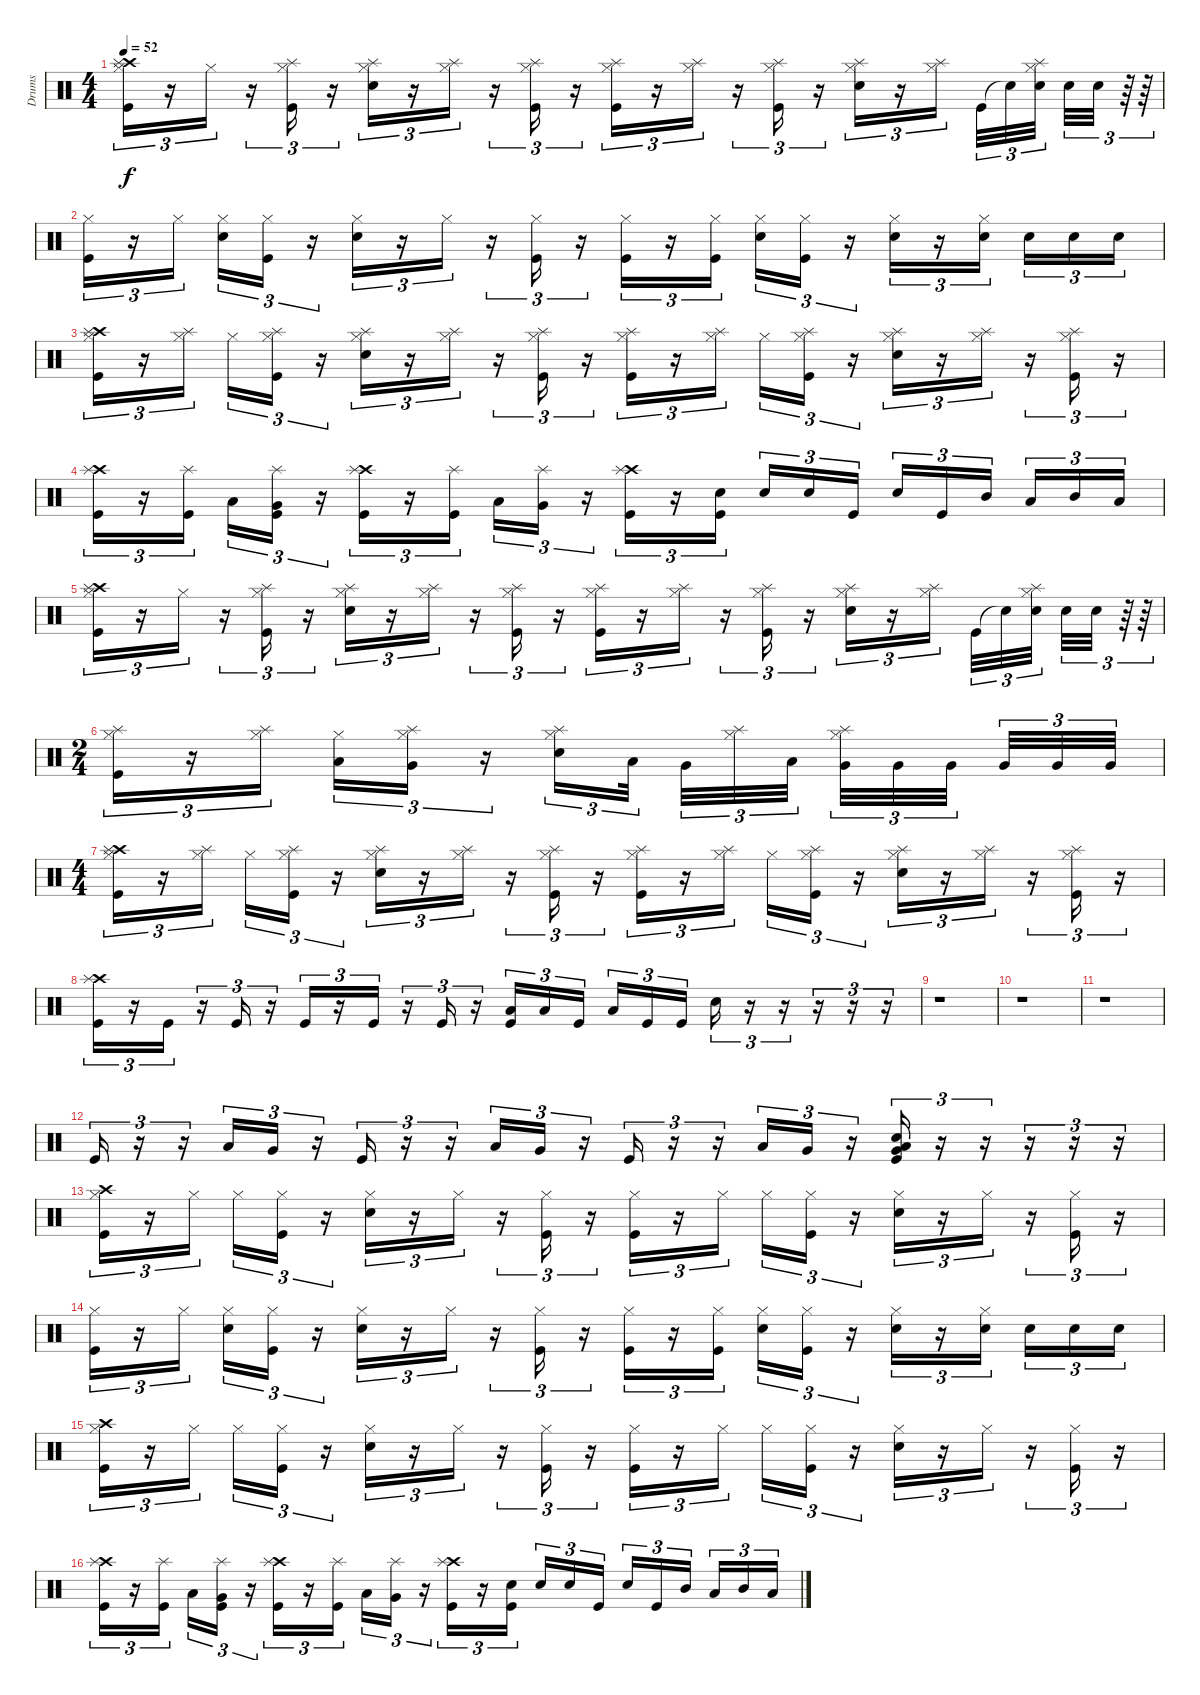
\track ("Drums" "Drums") {instrument percussion}
\staff {score}
\articulation defaults
\ts (4 4)
\tempo 52
\clef neutral
\ks c
("Hi-Hat (closed)" "Crash high (hit)" "Splash (hit)" "Kick (hit)").16{tu (3 2) dy f} r.16{tu (3 2)} "Hi-Hat (closed)".16{tu (3 2)} r.16{tu (3 2)} ("Hi-Hat (closed)" "Splash (hit)" "Kick (hit)").16{tu (3 2)} r.16{tu (3 2)} ("Hi-Hat (closed)" "Splash (hit)" "Electric Snare (hit)").16{tu (3 2)} r.16{tu (3 2)} ("Hi-Hat (closed)" "Splash (hit)").16{tu (3 2)} r.16{tu (3 2)} ("Hi-Hat (closed)" "Splash (hit)" "Kick (hit)").16{tu (3 2)} r.16{tu (3 2)} ("Hi-Hat (closed)" "Splash (hit)" "Kick (hit)").16{tu (3 2)} r.16{tu (3 2)} ("Hi-Hat (closed)" "Splash (hit)").16{tu (3 2)} r.16{tu (3 2)} ("Hi-Hat (closed)" "Splash (hit)" "Kick (hit)").16{tu (3 2)} r.16{tu (3 2)} ("Hi-Hat (closed)" "Splash (hit)" "Electric Snare (hit)").16{tu (3 2)} r.16{tu (3 2)} ("Hi-Hat (closed)" "Splash (hit)").16{tu (3 2)} "Kick (hit)".32{tu (3 2)} "Snare (hit)"{t}.32{tu (3 2)} ("Hi-Hat (closed)" "Splash (hit)" "Electric Snare (hit)").32{tu (3 2)} "Snare (hit) 2".32{tu (3 2)} "Snare (hit) 2".32{tu (3 2)} r.64{tu (3 2)} r.64{tu (3 2)} |
("Hi-Hat (closed)" "Kick (hit)").16{tu (3 2)} r.16{tu (3 2)} "Hi-Hat (closed)".16{tu (3 2)} ("Hi-Hat (closed)" "Snare (hit) 2").16{tu (3 2)} ("Hi-Hat (closed)" "Kick (hit)").16{tu (3 2)} r.16{tu (3 2)} ("Hi-Hat (closed)" "Electric Snare (hit)").16{tu (3 2)} r.16{tu (3 2)} "Hi-Hat (closed)".16{tu (3 2)} r.16{tu (3 2)} ("Hi-Hat (closed)" "Kick (hit)").16{tu (3 2)} r.16{tu (3 2)} ("Hi-Hat (closed)" "Kick (hit)").16{tu (3 2)} r.16{tu (3 2)} ("Hi-Hat (closed)" "Kick (hit)").16{tu (3 2)} ("Hi-Hat (closed)" "Snare (hit) 2").16{tu (3 2)} ("Hi-Hat (closed)" "Kick (hit)").16{tu (3 2)} r.16{tu (3 2)} ("Hi-Hat (closed)" "Electric Snare (hit)").16{tu (3 2)} r.16{tu (3 2)} ("Hi-Hat (closed)" "Snare (hit) 2").16{tu (3 2)} "Snare (hit) 2".16{tu (3 2)} "Snare (hit) 2".16{tu (3 2)} "Snare (hit) 2".16{tu (3 2)} |
("Hi-Hat (closed)" "Crash high (hit)" "Splash (hit)" "Kick (hit)").16{tu (3 2)} r.16{tu (3 2)} ("Hi-Hat (closed)" "Splash (hit)").16{tu (3 2)} "Hi-Hat (closed)".16{tu (3 2)} ("Hi-Hat (closed)" "Splash (hit)" "Kick (hit)").16{tu (3 2)} r.16{tu (3 2)} ("Hi-Hat (closed)" "Splash (hit)" "Electric Snare (hit)").16{tu (3 2)} r.16{tu (3 2)} ("Hi-Hat (closed)" "Splash (hit)").16{tu (3 2)} r.16{tu (3 2)} ("Hi-Hat (closed)" "Splash (hit)" "Kick (hit)").16{tu (3 2)} r.16{tu (3 2)} ("Hi-Hat (closed)" "Splash (hit)" "Kick (hit)").16{tu (3 2)} r.16{tu (3 2)} ("Hi-Hat (closed)" "Splash (hit)").16{tu (3 2)} "Hi-Hat (closed)".16{tu (3 2)} ("Hi-Hat (closed)" "Splash (hit)" "Kick (hit)").16{tu (3 2)} r.16{tu (3 2)} ("Hi-Hat (closed)" "Splash (hit)" "Electric Snare (hit)").16{tu (3 2)} r.16{tu (3 2)} ("Hi-Hat (closed)" "Splash (hit)").16{tu (3 2)} r.16{tu (3 2)} ("Hi-Hat (closed)" "Splash (hit)" "Kick (hit)").16{tu (3 2)} r.16{tu (3 2)} |
("Crash high (hit)" "Splash (hit)" "Kick (hit)").16{tu (3 2)} r.16{tu (3 2)} ("Splash (hit)" "Kick (hit)").16{tu (3 2)} "Low Tom (hit)".16{tu (3 2)} ("Splash (hit)" "Very Low Tom (hit)" "Kick (hit)").16{tu (3 2)} r.16{tu (3 2)} ("Crash high (hit)" "Splash (hit)" "Kick (hit)").16{tu (3 2)} r.16{tu (3 2)} ("Splash (hit)" "Kick (hit)").16{tu (3 2)} "Low Tom (hit)".16{tu (3 2)} ("Splash (hit)" "Very Low Tom (hit)").16{tu (3 2)} r.16{tu (3 2)} ("Crash high (hit)" "Splash (hit)" "Kick (hit)").16{tu (3 2)} r.16{tu (3 2)} ("Snare (hit) 2" "Kick (hit)").16{tu (3 2)} "Snare (hit) 2".16{tu (3 2)} "Snare (hit) 2".16{tu (3 2)} "Kick (hit)".16{tu (3 2)} "Snare (hit) 2".16{tu (3 2)} "Kick (hit)".16{tu (3 2)} "Mid Tom (hit)".16{tu (3 2)} "Low Tom (hit)".16{tu (3 2)} "Mid Tom (hit)".16{tu (3 2)} "Low Tom (hit)".16{tu (3 2)} |
("Hi-Hat (closed)" "Crash high (hit)" "Splash (hit)" "Kick (hit)").16{tu (3 2)} r.16{tu (3 2)} "Hi-Hat (closed)".16{tu (3 2)} r.16{tu (3 2)} ("Hi-Hat (closed)" "Splash (hit)" "Kick (hit)").16{tu (3 2)} r.16{tu (3 2)} ("Hi-Hat (closed)" "Splash (hit)" "Electric Snare (hit)").16{tu (3 2)} r.16{tu (3 2)} ("Hi-Hat (closed)" "Splash (hit)").16{tu (3 2)} r.16{tu (3 2)} ("Hi-Hat (closed)" "Splash (hit)" "Kick (hit)").16{tu (3 2)} r.16{tu (3 2)} ("Hi-Hat (closed)" "Splash (hit)" "Kick (hit)").16{tu (3 2)} r.16{tu (3 2)} ("Hi-Hat (closed)" "Splash (hit)").16{tu (3 2)} r.16{tu (3 2)} ("Hi-Hat (closed)" "Splash (hit)" "Kick (hit)").16{tu (3 2)} r.16{tu (3 2)} ("Hi-Hat (closed)" "Splash (hit)" "Electric Snare (hit)").16{tu (3 2)} r.16{tu (3 2)} ("Hi-Hat (closed)" "Splash (hit)").16{tu (3 2)} "Kick (hit)".32{tu (3 2)} "Snare (hit)"{t}.32{tu (3 2)} ("Hi-Hat (closed)" "Splash (hit)" "Electric Snare (hit)").32{tu (3 2)} "Snare (hit) 2".32{tu (3 2)} "Snare (hit) 2".32{tu (3 2)} r.64{tu (3 2)} r.64{tu (3 2)} |
\ts (2 4)
("Hi-Hat (closed)" "Splash (hit)" "Kick (hit)").16{tu (3 2)} r.16{tu (3 2)} ("Hi-Hat (closed)" "Splash (hit)").16{tu (3 2)} ("Hi-Hat (closed)" "Low Tom (hit)").16{tu (3 2)} ("Hi-Hat (closed)" "Splash (hit)" "Very Low Tom (hit)").16{tu (3 2)} r.16{tu (3 2)} ("Hi-Hat (closed)" "Splash (hit)" "Electric Snare (hit)").16{tu (3 2)} "Low Tom (hit)".32{tu (3 2)} "Very Low Tom (hit)".32{tu (3 2)} ("Hi-Hat (closed)" "Splash (hit)").32{tu (3 2)} "Low Tom (hit)".32{tu (3 2)} ("Hi-Hat (closed)" "Splash (hit)" "Very Low Tom (hit)").32{tu (3 2)} "Very Low Tom (hit)".32{tu (3 2)} "Very Low Tom (hit)".32{tu (3 2)} "Very Low Tom (hit)".32{tu (3 2)} "Very Low Tom (hit)".32{tu (3 2)} "Very Low Tom (hit)".32{tu (3 2)} |
\ts (4 4)
("Hi-Hat (closed)" "Crash high (hit)" "Splash (hit)" "Kick (hit)").16{tu (3 2)} r.16{tu (3 2)} ("Hi-Hat (closed)" "Splash (hit)").16{tu (3 2)} "Hi-Hat (closed)".16{tu (3 2)} ("Hi-Hat (closed)" "Splash (hit)" "Kick (hit)").16{tu (3 2)} r.16{tu (3 2)} ("Hi-Hat (closed)" "Splash (hit)" "Electric Snare (hit)").16{tu (3 2)} r.16{tu (3 2)} ("Hi-Hat (closed)" "Splash (hit)").16{tu (3 2)} r.16{tu (3 2)} ("Hi-Hat (closed)" "Splash (hit)" "Kick (hit)").16{tu (3 2)} r.16{tu (3 2)} ("Hi-Hat (closed)" "Splash (hit)" "Kick (hit)").16{tu (3 2)} r.16{tu (3 2)} ("Hi-Hat (closed)" "Splash (hit)").16{tu (3 2)} "Hi-Hat (closed)".16{tu (3 2)} ("Hi-Hat (closed)" "Splash (hit)" "Kick (hit)").16{tu (3 2)} r.16{tu (3 2)} ("Hi-Hat (closed)" "Splash (hit)" "Electric Snare (hit)").16{tu (3 2)} r.16{tu (3 2)} ("Hi-Hat (closed)" "Splash (hit)").16{tu (3 2)} r.16{tu (3 2)} ("Hi-Hat (closed)" "Splash (hit)" "Kick (hit)").16{tu (3 2)} r.16{tu (3 2)} |
("Crash high (hit)" "Splash (hit)" "Kick (hit)").16{tu (3 2)} r.16{tu (3 2)} "Kick (hit)".16{tu (3 2)} r.16{tu (3 2)} "Kick (hit)".16{tu (3 2)} r.16{tu (3 2)} "Kick (hit)".16{tu (3 2)} r.16{tu (3 2)} "Kick (hit)".16{tu (3 2)} r.16{tu (3 2)} "Kick (hit)".16{tu (3 2)} r.16{tu (3 2)} ("Low Tom (hit)" "Kick (hit)").16{tu (3 2)} "Low Tom (hit)".16{tu (3 2)} "Kick (hit)".16{tu (3 2)} "Low Tom (hit)".16{tu (3 2)} "Kick (hit)".16{tu (3 2)} "Kick (hit)".16{tu (3 2)} "Snare (hit) 2".16{tu (3 2)} r.16{tu (3 2)} r.16{tu (3 2)} r.16{tu (3 2)} r.16{tu (3 2)} r.16{tu (3 2)} |
r.1 |
r.1 |
r.1 |
"Kick (hit)".16{tu (3 2)} r.16{tu (3 2)} r.16{tu (3 2)} "Low Tom (hit)".16{tu (3 2)} "Very Low Tom (hit)".16{tu (3 2)} r.16{tu (3 2)} "Kick (hit)".16{tu (3 2)} r.16{tu (3 2)} r.16{tu (3 2)} "Low Tom (hit)".16{tu (3 2)} "Very Low Tom (hit)".16{tu (3 2)} r.16{tu (3 2)} "Kick (hit)".16{tu (3 2)} r.16{tu (3 2)} r.16{tu (3 2)} "Low Tom (hit)".16{tu (3 2)} "Very Low Tom (hit)".16{tu (3 2)} r.16{tu (3 2)} ("Electric Snare (hit)" "Low Tom (hit)" "Very Low Tom (hit)" "Kick (hit)").16{tu (3 2)} r.16{tu (3 2)} r.16{tu (3 2)} r.16{tu (3 2)} r.16{tu (3 2)} r.16{tu (3 2)} |
("Hi-Hat (closed)" "Crash high (hit)" "Kick (hit)").16{tu (3 2)} r.16{tu (3 2)} "Hi-Hat (closed)".16{tu (3 2)} "Hi-Hat (closed)".16{tu (3 2)} ("Hi-Hat (closed)" "Kick (hit)").16{tu (3 2)} r.16{tu (3 2)} ("Hi-Hat (closed)" "Electric Snare (hit)").16{tu (3 2)} r.16{tu (3 2)} "Hi-Hat (closed)".16{tu (3 2)} r.16{tu (3 2)} ("Hi-Hat (closed)" "Kick (hit)").16{tu (3 2)} r.16{tu (3 2)} ("Hi-Hat (closed)" "Kick (hit)").16{tu (3 2)} r.16{tu (3 2)} "Hi-Hat (closed)".16{tu (3 2)} "Hi-Hat (closed)".16{tu (3 2)} ("Hi-Hat (closed)" "Kick (hit)").16{tu (3 2)} r.16{tu (3 2)} ("Hi-Hat (closed)" "Electric Snare (hit)").16{tu (3 2)} r.16{tu (3 2)} "Hi-Hat (closed)".16{tu (3 2)} r.16{tu (3 2)} ("Hi-Hat (closed)" "Kick (hit)").16{tu (3 2)} r.16{tu (3 2)} |
("Hi-Hat (closed)" "Kick (hit)").16{tu (3 2)} r.16{tu (3 2)} "Hi-Hat (closed)".16{tu (3 2)} ("Hi-Hat (closed)" "Snare (hit) 2").16{tu (3 2)} ("Hi-Hat (closed)" "Kick (hit)").16{tu (3 2)} r.16{tu (3 2)} ("Hi-Hat (closed)" "Electric Snare (hit)").16{tu (3 2)} r.16{tu (3 2)} "Hi-Hat (closed)".16{tu (3 2)} r.16{tu (3 2)} ("Hi-Hat (closed)" "Kick (hit)").16{tu (3 2)} r.16{tu (3 2)} ("Hi-Hat (closed)" "Kick (hit)").16{tu (3 2)} r.16{tu (3 2)} ("Hi-Hat (closed)" "Kick (hit)").16{tu (3 2)} ("Hi-Hat (closed)" "Snare (hit) 2").16{tu (3 2)} ("Hi-Hat (closed)" "Kick (hit)").16{tu (3 2)} r.16{tu (3 2)} ("Hi-Hat (closed)" "Electric Snare (hit)").16{tu (3 2)} r.16{tu (3 2)} ("Hi-Hat (closed)" "Snare (hit) 2").16{tu (3 2)} "Snare (hit) 2".16{tu (3 2)} "Snare (hit) 2".16{tu (3 2)} "Snare (hit) 2".16{tu (3 2)} |
("Hi-Hat (closed)" "Crash high (hit)" "Kick (hit)").16{tu (3 2)} r.16{tu (3 2)} "Hi-Hat (closed)".16{tu (3 2)} "Hi-Hat (closed)".16{tu (3 2)} ("Hi-Hat (closed)" "Kick (hit)").16{tu (3 2)} r.16{tu (3 2)} ("Hi-Hat (closed)" "Electric Snare (hit)").16{tu (3 2)} r.16{tu (3 2)} "Hi-Hat (closed)".16{tu (3 2)} r.16{tu (3 2)} ("Hi-Hat (closed)" "Kick (hit)").16{tu (3 2)} r.16{tu (3 2)} ("Hi-Hat (closed)" "Kick (hit)").16{tu (3 2)} r.16{tu (3 2)} "Hi-Hat (closed)".16{tu (3 2)} "Hi-Hat (closed)".16{tu (3 2)} ("Hi-Hat (closed)" "Kick (hit)").16{tu (3 2)} r.16{tu (3 2)} ("Hi-Hat (closed)" "Electric Snare (hit)").16{tu (3 2)} r.16{tu (3 2)} "Hi-Hat (closed)".16{tu (3 2)} r.16{tu (3 2)} ("Hi-Hat (closed)" "Kick (hit)").16{tu (3 2)} r.16{tu (3 2)} |
("Crash high (hit)" "Splash (hit)" "Kick (hit)").16{tu (3 2)} r.16{tu (3 2)} ("Splash (hit)" "Kick (hit)").16{tu (3 2)} "Low Tom (hit)".16{tu (3 2)} ("Splash (hit)" "Very Low Tom (hit)" "Kick (hit)").16{tu (3 2)} r.16{tu (3 2)} ("Crash high (hit)" "Splash (hit)" "Kick (hit)").16{tu (3 2)} r.16{tu (3 2)} ("Splash (hit)" "Kick (hit)").16{tu (3 2)} "Low Tom (hit)".16{tu (3 2)} ("Splash (hit)" "Very Low Tom (hit)").16{tu (3 2)} r.16{tu (3 2)} ("Crash high (hit)" "Splash (hit)" "Kick (hit)").16{tu (3 2)} r.16{tu (3 2)} ("Snare (hit) 2" "Kick (hit)").16{tu (3 2)} "Snare (hit) 2".16{tu (3 2)} "Snare (hit) 2".16{tu (3 2)} "Kick (hit)".16{tu (3 2)} "Snare (hit) 2".16{tu (3 2)} "Kick (hit)".16{tu (3 2)} "Mid Tom (hit)".16{tu (3 2)} "Low Tom (hit)".16{tu (3 2)} "Mid Tom (hit)".16{tu (3 2)} "Low Tom (hit)".16{tu (3 2)}
